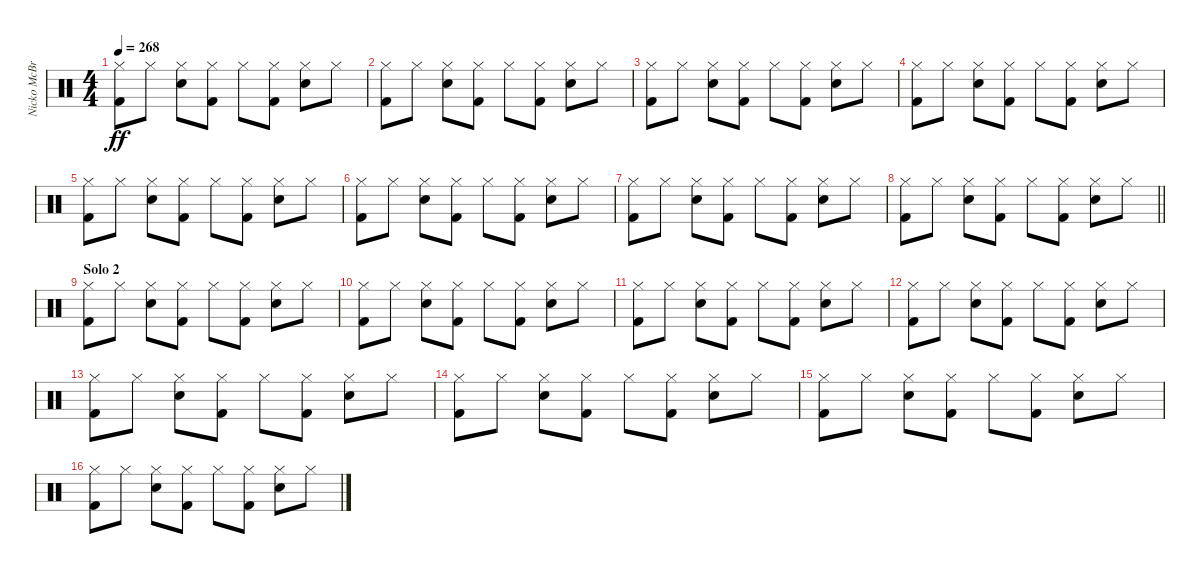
\track ("Nicko McBrain" "Nicko McBr") {instrument percussion}
\staff {score}
\articulation defaults
\ts (4 4)
\tempo 268
\clef neutral
\ks c
("Kick (hit) 2" "Hi-Hat (closed)").8{dy ff} "Hi-Hat (closed)".8 ("Snare (hit) 2" "Hi-Hat (closed)").8 ("Kick (hit) 2" "Hi-Hat (closed)").8 "Hi-Hat (closed)".8 ("Kick (hit) 2" "Hi-Hat (closed)").8 ("Snare (hit) 2" "Hi-Hat (closed)").8 "Hi-Hat (closed)".8 |
("Kick (hit) 2" "Hi-Hat (closed)").8 "Hi-Hat (closed)".8 ("Snare (hit) 2" "Hi-Hat (closed)").8 ("Kick (hit) 2" "Hi-Hat (closed)").8 "Hi-Hat (closed)".8 ("Kick (hit) 2" "Hi-Hat (closed)").8 ("Snare (hit) 2" "Hi-Hat (closed)").8 "Hi-Hat (closed)".8 |
("Kick (hit) 2" "Hi-Hat (closed)").8 "Hi-Hat (closed)".8 ("Snare (hit) 2" "Hi-Hat (closed)").8 ("Kick (hit) 2" "Hi-Hat (closed)").8 "Hi-Hat (closed)".8 ("Kick (hit) 2" "Hi-Hat (closed)").8 ("Snare (hit) 2" "Hi-Hat (closed)").8 "Hi-Hat (closed)".8 |
("Kick (hit) 2" "Hi-Hat (closed)").8 "Hi-Hat (closed)".8 ("Snare (hit) 2" "Hi-Hat (closed)").8 ("Kick (hit) 2" "Hi-Hat (closed)").8 "Hi-Hat (closed)".8 ("Kick (hit) 2" "Hi-Hat (closed)").8 ("Snare (hit) 2" "Hi-Hat (closed)").8 "Hi-Hat (closed)".8 |
("Kick (hit) 2" "Hi-Hat (closed)").8 "Hi-Hat (closed)".8 ("Snare (hit) 2" "Hi-Hat (closed)").8 ("Kick (hit) 2" "Hi-Hat (closed)").8 "Hi-Hat (closed)".8 ("Kick (hit) 2" "Hi-Hat (closed)").8 ("Snare (hit) 2" "Hi-Hat (closed)").8 "Hi-Hat (closed)".8 |
("Kick (hit) 2" "Hi-Hat (closed)").8 "Hi-Hat (closed)".8 ("Snare (hit) 2" "Hi-Hat (closed)").8 ("Kick (hit) 2" "Hi-Hat (closed)").8 "Hi-Hat (closed)".8 ("Kick (hit) 2" "Hi-Hat (closed)").8 ("Snare (hit) 2" "Hi-Hat (closed)").8 "Hi-Hat (closed)".8 |
("Kick (hit) 2" "Hi-Hat (closed)").8 "Hi-Hat (closed)".8 ("Snare (hit) 2" "Hi-Hat (closed)").8 ("Kick (hit) 2" "Hi-Hat (closed)").8 "Hi-Hat (closed)".8 ("Kick (hit) 2" "Hi-Hat (closed)").8 ("Snare (hit) 2" "Hi-Hat (closed)").8 "Hi-Hat (closed)".8 |
\barLineRight lightlight
("Kick (hit) 2" "Hi-Hat (closed)").8 "Hi-Hat (closed)".8 ("Snare (hit) 2" "Hi-Hat (closed)").8 ("Kick (hit) 2" "Hi-Hat (closed)").8 "Hi-Hat (closed)".8 ("Kick (hit) 2" "Hi-Hat (closed)").8 ("Snare (hit) 2" "Hi-Hat (closed)").8 "Hi-Hat (closed)".8 |
\section ("" "Solo 2")
("Kick (hit) 2" "Hi-Hat (closed)").8 "Hi-Hat (closed)".8 ("Snare (hit) 2" "Hi-Hat (closed)").8 ("Kick (hit) 2" "Hi-Hat (closed)").8 "Hi-Hat (closed)".8 ("Kick (hit) 2" "Hi-Hat (closed)").8 ("Snare (hit) 2" "Hi-Hat (closed)").8 "Hi-Hat (closed)".8 |
("Kick (hit) 2" "Hi-Hat (closed)").8 "Hi-Hat (closed)".8 ("Snare (hit) 2" "Hi-Hat (closed)").8 ("Kick (hit) 2" "Hi-Hat (closed)").8 "Hi-Hat (closed)".8 ("Kick (hit) 2" "Hi-Hat (closed)").8 ("Snare (hit) 2" "Hi-Hat (closed)").8 "Hi-Hat (closed)".8 |
("Kick (hit) 2" "Hi-Hat (closed)").8 "Hi-Hat (closed)".8 ("Snare (hit) 2" "Hi-Hat (closed)").8 ("Kick (hit) 2" "Hi-Hat (closed)").8 "Hi-Hat (closed)".8 ("Kick (hit) 2" "Hi-Hat (closed)").8 ("Snare (hit) 2" "Hi-Hat (closed)").8 "Hi-Hat (closed)".8 |
("Kick (hit) 2" "Hi-Hat (closed)").8 "Hi-Hat (closed)".8 ("Snare (hit) 2" "Hi-Hat (closed)").8 ("Kick (hit) 2" "Hi-Hat (closed)").8 "Hi-Hat (closed)".8 ("Kick (hit) 2" "Hi-Hat (closed)").8 ("Snare (hit) 2" "Hi-Hat (closed)").8 "Hi-Hat (closed)".8 |
("Kick (hit) 2" "Hi-Hat (closed)").8 "Hi-Hat (closed)".8 ("Snare (hit) 2" "Hi-Hat (closed)").8 ("Kick (hit) 2" "Hi-Hat (closed)").8 "Hi-Hat (closed)".8 ("Kick (hit) 2" "Hi-Hat (closed)").8 ("Snare (hit) 2" "Hi-Hat (closed)").8 "Hi-Hat (closed)".8 |
("Kick (hit) 2" "Hi-Hat (closed)").8 "Hi-Hat (closed)".8 ("Snare (hit) 2" "Hi-Hat (closed)").8 ("Kick (hit) 2" "Hi-Hat (closed)").8 "Hi-Hat (closed)".8 ("Kick (hit) 2" "Hi-Hat (closed)").8 ("Snare (hit) 2" "Hi-Hat (closed)").8 "Hi-Hat (closed)".8 |
("Kick (hit) 2" "Hi-Hat (closed)").8 "Hi-Hat (closed)".8 ("Snare (hit) 2" "Hi-Hat (closed)").8 ("Kick (hit) 2" "Hi-Hat (closed)").8 "Hi-Hat (closed)".8 ("Kick (hit) 2" "Hi-Hat (closed)").8 ("Snare (hit) 2" "Hi-Hat (closed)").8 "Hi-Hat (closed)".8 |
("Kick (hit) 2" "Hi-Hat (closed)").8 "Hi-Hat (closed)".8 ("Snare (hit) 2" "Hi-Hat (closed)").8 ("Kick (hit) 2" "Hi-Hat (closed)").8 "Hi-Hat (closed)".8 ("Kick (hit) 2" "Hi-Hat (closed)").8 ("Snare (hit) 2" "Hi-Hat (closed)").8 "Hi-Hat (closed)".8
